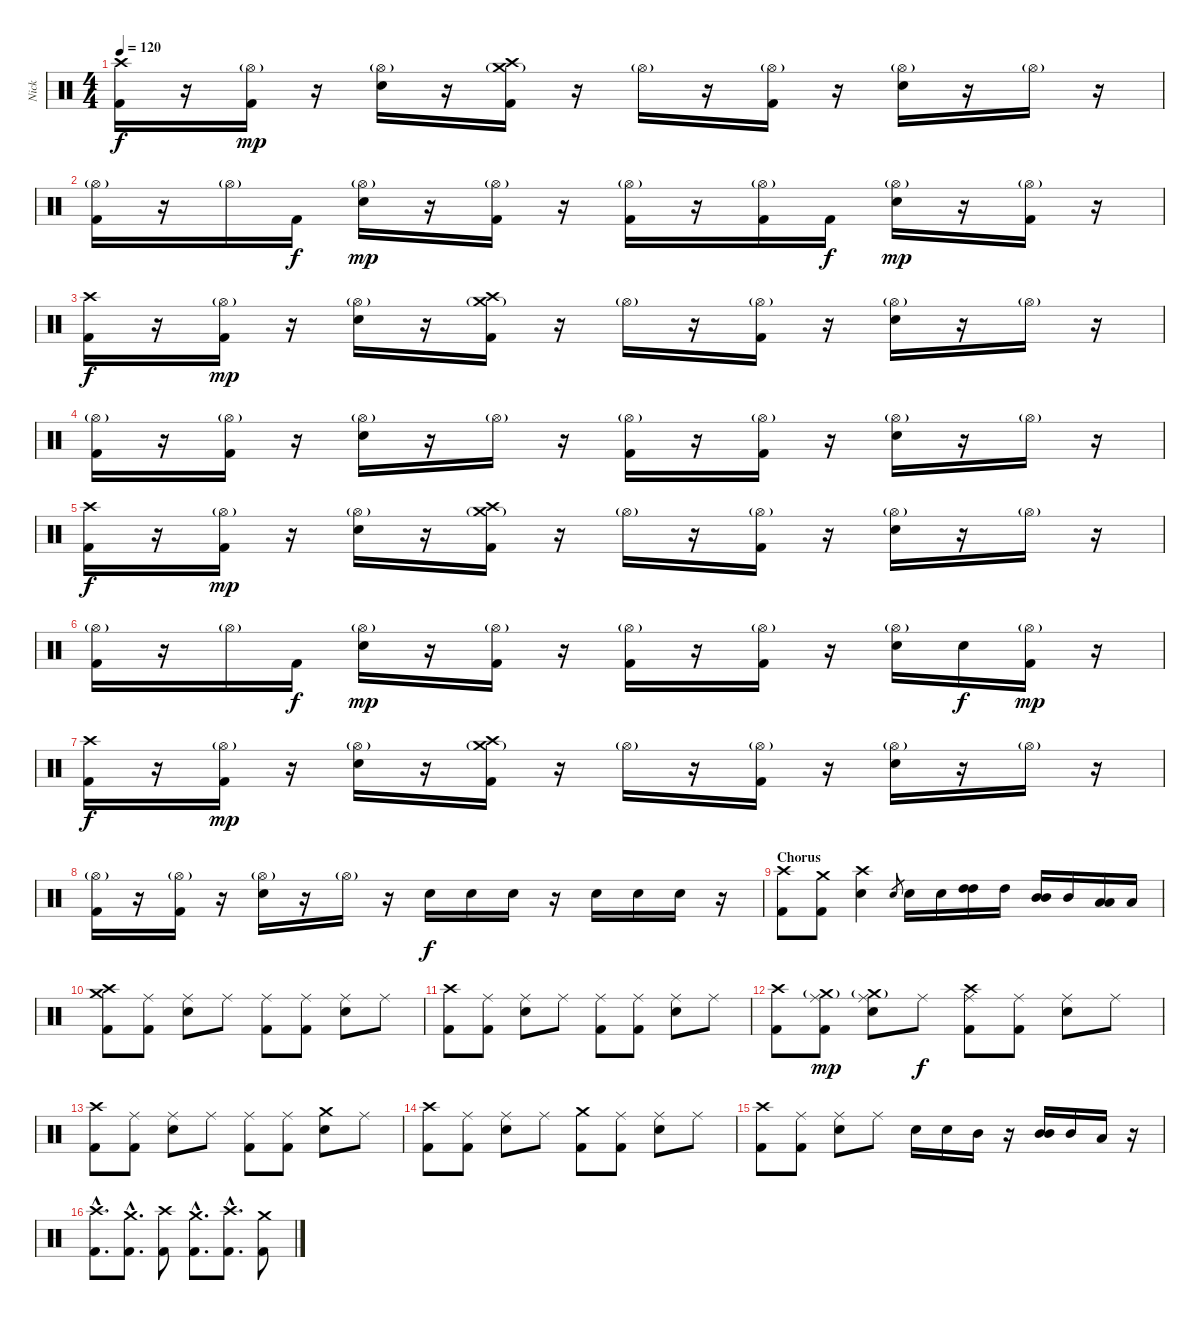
\track ("Nick" "Nick") {instrument percussion}
\staff {score}
\articulation defaults
\ts (4 4)
\tempo 120
\clef neutral
\ks c
("Crash high (hit)" "Kick (hit) 2").16{dy f} r.16 ("Hi-Hat (open)"{g} "Kick (hit) 2").16{dy mp} r.16 ("Hi-Hat (open)"{g} "Electric Snare (hit)").16 r.16 ("Crash medium (hit)"{g} "Crash high (hit)" "Kick (hit) 2").16 r.16 "Hi-Hat (open)"{g}.16 r.16 ("Hi-Hat (open)"{g} "Kick (hit) 2").16 r.16 ("Hi-Hat (open)"{g} "Electric Snare (hit)").16 r.16 "Hi-Hat (open)"{g}.16 r.16 |
("Hi-Hat (open)"{g} "Kick (hit) 2").16 r.16 "Hi-Hat (open)"{g}.16 "Kick (hit) 2".16{dy f} ("Hi-Hat (open)"{g} "Electric Snare (hit)").16{dy mp} r.16 ("Hi-Hat (open)"{g} "Kick (hit) 2").16 r.16 ("Hi-Hat (open)"{g} "Kick (hit) 2").16 r.16 ("Hi-Hat (open)"{g} "Kick (hit) 2").16 "Kick (hit) 2".16{dy f} ("Hi-Hat (open)"{g} "Electric Snare (hit)").16{dy mp} r.16 ("Hi-Hat (open)"{g} "Kick (hit) 2").16 r.16 |
("Crash high (hit)" "Kick (hit) 2").16{dy f} r.16 ("Hi-Hat (open)"{g} "Kick (hit) 2").16{dy mp} r.16 ("Hi-Hat (open)"{g} "Electric Snare (hit)").16 r.16 ("Crash medium (hit)"{g} "Crash high (hit)" "Kick (hit) 2").16 r.16 "Hi-Hat (open)"{g}.16 r.16 ("Hi-Hat (open)"{g} "Kick (hit) 2").16 r.16 ("Hi-Hat (open)"{g} "Electric Snare (hit)").16 r.16 "Hi-Hat (open)"{g}.16 r.16 |
("Hi-Hat (open)"{g} "Kick (hit) 2").16 r.16 ("Hi-Hat (open)"{g} "Kick (hit) 2").16 r.16 ("Hi-Hat (open)"{g} "Electric Snare (hit)").16 r.16 "Hi-Hat (open)"{g}.16 r.16 ("Hi-Hat (open)"{g} "Kick (hit) 2").16 r.16 ("Hi-Hat (open)"{g} "Kick (hit) 2").16 r.16 ("Hi-Hat (open)"{g} "Electric Snare (hit)").16 r.16 "Hi-Hat (open)"{g}.16 r.16 |
("Crash high (hit)" "Kick (hit) 2").16{dy f} r.16 ("Hi-Hat (open)"{g} "Kick (hit) 2").16{dy mp} r.16 ("Hi-Hat (open)"{g} "Electric Snare (hit)").16 r.16 ("Crash medium (hit)"{g} "Crash high (hit)" "Kick (hit) 2").16 r.16 "Hi-Hat (open)"{g}.16 r.16 ("Hi-Hat (open)"{g} "Kick (hit) 2").16 r.16 ("Hi-Hat (open)"{g} "Electric Snare (hit)").16 r.16 "Hi-Hat (open)"{g}.16 r.16 |
("Hi-Hat (open)"{g} "Kick (hit) 2").16 r.16 "Hi-Hat (open)"{g}.16 "Kick (hit) 2".16{dy f} ("Hi-Hat (open)"{g} "Electric Snare (hit)").16{dy mp} r.16 ("Hi-Hat (open)"{g} "Kick (hit) 2").16 r.16 ("Hi-Hat (open)"{g} "Kick (hit) 2").16 r.16 ("Hi-Hat (open)"{g} "Kick (hit) 2").16 r.16 ("Hi-Hat (open)"{g} "Electric Snare (hit)").16 "Electric Snare (hit)".16{dy f} ("Hi-Hat (open)"{g} "Kick (hit) 2").16{dy mp} r.16 |
("Crash high (hit)" "Kick (hit) 2").16{dy f} r.16 ("Hi-Hat (open)"{g} "Kick (hit) 2").16{dy mp} r.16 ("Hi-Hat (open)"{g} "Electric Snare (hit)").16 r.16 ("Crash medium (hit)"{g} "Crash high (hit)" "Kick (hit) 2").16 r.16 "Hi-Hat (open)"{g}.16 r.16 ("Hi-Hat (open)"{g} "Kick (hit) 2").16 r.16 ("Hi-Hat (open)"{g} "Electric Snare (hit)").16 r.16 "Hi-Hat (open)"{g}.16 r.16 |
("Hi-Hat (open)"{g} "Kick (hit) 2").16 r.16 ("Hi-Hat (open)"{g} "Kick (hit) 2").16 r.16 ("Hi-Hat (open)"{g} "Electric Snare (hit)").16 r.16 "Hi-Hat (open)"{g}.16 r.16 "Electric Snare (hit)".16{dy f} "Electric Snare (hit)".16 "Electric Snare (hit)".16 r.16 "Electric Snare (hit)".16 "Electric Snare (hit)".16 "Electric Snare (hit)".16 r.16 |
\section ("" "Chorus")
("Crash high (hit)" "Kick (hit) 2").8 ("Crash medium (hit)" "Kick (hit) 2").8 ("Crash high (hit)" "Electric Snare (hit)").4 "Electric Snare (hit)".8{gr} "Electric Snare (hit)".16 "Electric Snare (hit)".16 ("High Tom (hit)" "High Tom (hit)").16 "High Tom (hit)".16 ("Mid Tom (hit)" "Mid Tom (hit)").16 "Mid Tom (hit)".16 ("Low Tom (hit)" "Low Tom (hit)").16 "Low Tom (hit)".16 |
("Crash high (hit)" "Crash medium (hit)" "Kick (hit) 2").8 ("Ride (middle)" "Kick (hit) 2").8 ("Ride (middle)" "Electric Snare (hit)").8 "Ride (middle)".8 ("Ride (middle)" "Kick (hit) 2").8 ("Ride (middle)" "Kick (hit) 2").8 ("Ride (middle)" "Electric Snare (hit)").8 "Ride (middle)".8 |
("Crash high (hit)" "Kick (hit) 2").8 ("Ride (middle)" "Kick (hit) 2").8 ("Ride (middle)" "Electric Snare (hit)").8 "Ride (middle)".8 ("Ride (middle)" "Kick (hit) 2").8 ("Ride (middle)" "Kick (hit) 2").8 ("Ride (middle)" "Electric Snare (hit)").8 "Ride (middle)".8 |
("Crash high (hit)" "Kick (hit) 2").8 ("Crash medium (hit)"{g} "Ride (middle)" "Kick (hit) 2").8{dy mp} ("Crash medium (hit)"{g} "Ride (middle)" "Electric Snare (hit)").8 "Ride (middle)".8{dy f} ("Crash high (hit)" "Ride (middle)" "Kick (hit) 2").8 ("Ride (middle)" "Kick (hit) 2").8 ("Ride (middle)" "Electric Snare (hit)").8 "Ride (middle)".8 |
("Crash high (hit)" "Kick (hit) 2").8 ("Ride (middle)" "Kick (hit) 2").8 ("Ride (middle)" "Electric Snare (hit)").8 "Ride (middle)".8 ("Ride (middle)" "Kick (hit) 2").8 ("Ride (middle)" "Kick (hit) 2").8 ("Crash medium (hit)" "Electric Snare (hit)").8 "Ride (middle)".8 |
("Crash high (hit)" "Kick (hit) 2").8 ("Ride (middle)" "Kick (hit) 2").8 ("Ride (middle)" "Electric Snare (hit)").8 "Ride (middle)".8 ("Crash medium (hit)" "Kick (hit) 2").8 ("Ride (middle)" "Kick (hit) 2").8 ("Ride (middle)" "Electric Snare (hit)").8 "Ride (middle)".8 |
("Crash high (hit)" "Kick (hit) 2").8 ("Ride (middle)" "Kick (hit) 2").8 ("Ride (middle)" "Electric Snare (hit)").8 "Ride (middle)".8 "Electric Snare (hit)".16 "Electric Snare (hit)".16 "Mid Tom (hit)".16 r.16 ("Mid Tom (hit)" "Mid Tom (hit)").16 "Mid Tom (hit)".16 "Low Tom (hit)".16 r.16 |
("Crash high (hit)"{hac} "Kick (hit) 2"{hac}).8{d} ("Crash medium (hit)"{hac} "Kick (hit) 2"{hac}).8{d} ("Crash high (hit)" "Kick (hit) 2").8 ("Crash medium (hit)"{hac} "Kick (hit) 2"{hac}).8{d} ("Crash high (hit)"{hac} "Kick (hit) 2"{hac}).8{d} ("Crash medium (hit)" "Kick (hit) 2").8
